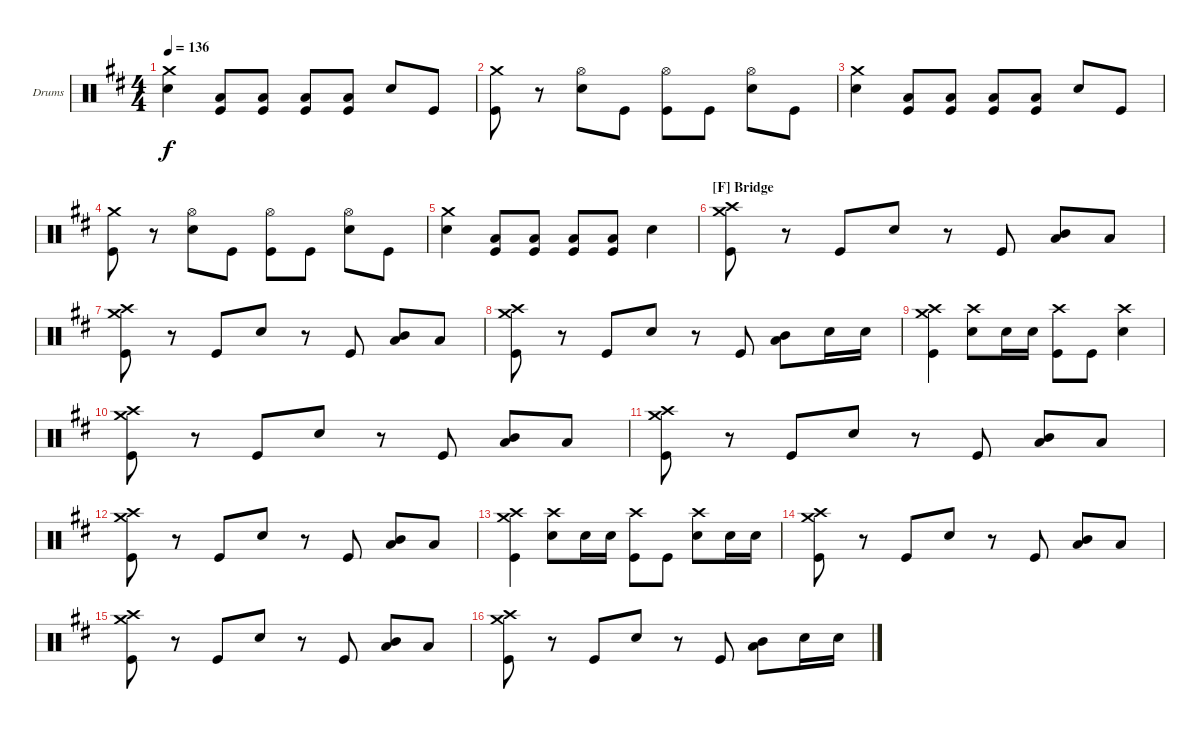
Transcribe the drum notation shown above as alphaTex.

\defaultSystemsLayout 4
\bracketExtendMode groupsimilarinstruments
\firstSystemTrackNameOrientation horizontal
\otherSystemsTrackNameOrientation horizontal
\track ("Drumkit" "Drums") {instrument percussion}
\staff {score}
\articulation defaults
\ts (4 4)
\tempo 136
\clef neutral
\scale
1.05044
\ks d
("Crash medium (hit)" "Snare (hit) 2").4{dy f} ("Low Tom (hit)" "Kick (hit)").8 ("Low Tom (hit)" "Kick (hit)").8 ("Low Tom (hit)" "Kick (hit)").8 ("Low Tom (hit)" "Kick (hit)").8 "Snare (hit) 2".8 "Kick (hit)".8 |
\scale
0.949559 ("Crash medium (hit)" "Kick (hit)").8 r.8 ("Hi-Hat (open)" "Snare (hit) 2").8 "Kick (hit)".8 ("Hi-Hat (open)" "Kick (hit)").8 "Kick (hit)".8 ("Hi-Hat (open)" "Snare (hit) 2").8 "Kick (hit)".8 |
\scale
1.05044 ("Crash medium (hit)" "Snare (hit) 2").4 ("Low Tom (hit)" "Kick (hit)").8 ("Low Tom (hit)" "Kick (hit)").8 ("Low Tom (hit)" "Kick (hit)").8 ("Low Tom (hit)" "Kick (hit)").8 "Snare (hit) 2".8 "Kick (hit)".8 |
\scale
0.949559 ("Crash medium (hit)" "Kick (hit)").8 r.8 ("Hi-Hat (open)" "Snare (hit) 2").8 "Kick (hit)".8 ("Hi-Hat (open)" "Kick (hit)").8 "Kick (hit)".8 ("Hi-Hat (open)" "Snare (hit) 2").8 "Kick (hit)".8 |
\scale
1.05044 ("Crash medium (hit)" "Snare (hit) 2").4 ("Low Tom (hit)" "Kick (hit)").8 ("Low Tom (hit)" "Kick (hit)").8 ("Low Tom (hit)" "Kick (hit)").8 ("Low Tom (hit)" "Kick (hit)").8 "Snare (hit) 2".4 |
\section ("F" "Bridge")
\scale
0.949559 ("Crash high (hit)" "Crash medium (hit)" "Kick (hit)").8 r.8 "Kick (hit)".8 "Snare (hit) 2".8 r.8 "Kick (hit)".8 ("Low Tom (hit)" "Mid Tom (hit)").8 "Low Tom (hit)".8 |
\scale
1.05044 ("Crash high (hit)" "Crash medium (hit)" "Kick (hit)").8 r.8 "Kick (hit)".8 "Snare (hit) 2".8 r.8 "Kick (hit)".8 ("Low Tom (hit)" "Mid Tom (hit)").8 "Low Tom (hit)".8 |
\scale
0.949559 ("Crash high (hit)" "Crash medium (hit)" "Kick (hit)").8 r.8 "Kick (hit)".8 "Snare (hit) 2".8 r.8 "Kick (hit)".8 ("Low Tom (hit)" "Mid Tom (hit)").8 "Snare (hit) 2".16 "Snare (hit) 2".16 |
\scale
1.05044 ("Crash high (hit)" "Crash medium (hit)" "Kick (hit)").4 ("Crash high (hit)" "Snare (hit) 2").8 "Snare (hit) 2".16 "Snare (hit) 2".16 ("Crash high (hit)" "Kick (hit)").8 "Kick (hit)".8 ("Crash high (hit)" "Snare (hit) 2").4 |
\scale
0.949559 ("Crash high (hit)" "Crash medium (hit)" "Kick (hit)").8 r.8 "Kick (hit)".8 "Snare (hit) 2".8 r.8 "Kick (hit)".8 ("Low Tom (hit)" "Mid Tom (hit)").8 "Low Tom (hit)".8 |
\scale
1.05044 ("Crash high (hit)" "Crash medium (hit)" "Kick (hit)").8 r.8 "Kick (hit)".8 "Snare (hit) 2".8 r.8 "Kick (hit)".8 ("Low Tom (hit)" "Mid Tom (hit)").8 "Low Tom (hit)".8 |
\scale
0.949559 ("Crash high (hit)" "Crash medium (hit)" "Kick (hit)").8 r.8 "Kick (hit)".8 "Snare (hit) 2".8 r.8 "Kick (hit)".8 ("Mid Tom (hit)" "Low Tom (hit)").8 "Low Tom (hit)".8 |
\scale
1.05044 ("Crash high (hit)" "Crash medium (hit)" "Kick (hit)").4 ("Crash high (hit)" "Snare (hit) 2").8 "Snare (hit) 2".16 "Snare (hit) 2".16 ("Crash high (hit)" "Kick (hit)").8 "Kick (hit)".8 ("Crash high (hit)" "Snare (hit) 2").8 "Snare (hit) 2".16 "Snare (hit) 2".16 |
\scale
0.949559 ("Crash high (hit)" "Crash medium (hit)" "Kick (hit)").8 r.8 "Kick (hit)".8 "Snare (hit) 2".8 r.8 "Kick (hit)".8 ("Mid Tom (hit)" "Low Tom (hit)").8 "Low Tom (hit)".8 |
\scale
1.05044 ("Crash high (hit)" "Crash medium (hit)" "Kick (hit)").8 r.8 "Kick (hit)".8 "Snare (hit) 2".8 r.8 "Kick (hit)".8 ("Low Tom (hit)" "Mid Tom (hit)").8 "Low Tom (hit)".8 |
\scale
0.949559 ("Crash high (hit)" "Crash medium (hit)" "Kick (hit)").8 r.8 "Kick (hit)".8 "Snare (hit) 2".8 r.8 "Kick (hit)".8 ("Mid Tom (hit)" "Low Tom (hit)").8 "Snare (hit) 2".16 "Snare (hit) 2".16
